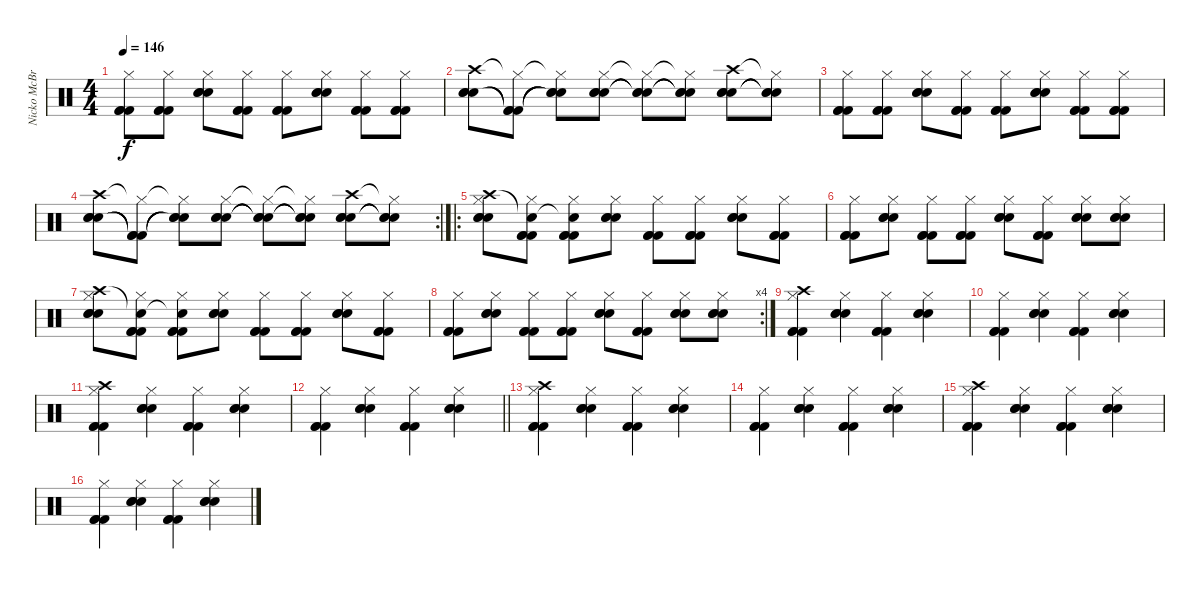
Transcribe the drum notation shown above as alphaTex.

\track ("Nicko McBrain" "Nicko McBr") {instrument percussion}
\staff {score}
\articulation defaults
\ts (4 4)
\tempo 146
\clef neutral
\ks c
("Hi-Hat (closed)" "Kick (hit) 2" "Kick (hit) 2" "Kick (hit) 2").8{dy f} ("Hi-Hat (closed)" "Kick (hit) 2" "Kick (hit) 2" "Kick (hit) 2").8 ("Hi-Hat (closed)" "Snare (hit) 2" "Snare (hit) 2" "Snare (hit) 2").8 ("Hi-Hat (closed)" "Kick (hit) 2" "Kick (hit) 2" "Kick (hit) 2").8 ("Hi-Hat (closed)" "Kick (hit) 2" "Kick (hit) 2" "Kick (hit) 2").8 ("Hi-Hat (closed)" "Snare (hit) 2" "Snare (hit) 2" "Snare (hit) 2").8 ("Hi-Hat (closed)" "Kick (hit) 2" "Kick (hit) 2" "Kick (hit) 2").8 ("Hi-Hat (closed)" "Kick (hit) 2" "Kick (hit) 2" "Kick (hit) 2").8 |
("Crash high (hit)" "Snare (hit) 2" "Snare (hit) 2" "Snare (hit) 2").8 ("Hi-Hat (closed)"{t} "Kick (hit) 2"{t} "Kick (hit) 2"{t} "Kick (hit) 2"{t}).8 ("Hi-Hat (closed)"{t} "Snare (hit) 2"{t} "Snare (hit) 2"{t} "Snare (hit) 2"{t}).8 ("Hi-Hat (closed)" "Snare (hit) 2" "Snare (hit) 2" "Snare (hit) 2").8 ("Hi-Hat (closed)"{t} "Snare (hit) 2"{t} "Snare (hit) 2"{t} "Snare (hit) 2"{t}).8 ("Hi-Hat (closed)"{t} "Snare (hit) 2"{t} "Snare (hit) 2"{t} "Snare (hit) 2"{t}).8 ("Crash high (hit)" "Snare (hit) 2" "Snare (hit) 2" "Snare (hit) 2").8 ("Hi-Hat (closed)"{t} "Snare (hit) 2"{t} "Snare (hit) 2"{t} "Snare (hit) 2"{t}).8 |
("Hi-Hat (closed)" "Kick (hit) 2" "Kick (hit) 2" "Kick (hit) 2").8 ("Hi-Hat (closed)" "Kick (hit) 2" "Kick (hit) 2" "Kick (hit) 2").8 ("Hi-Hat (closed)" "Snare (hit) 2" "Snare (hit) 2" "Snare (hit) 2").8 ("Hi-Hat (closed)" "Kick (hit) 2" "Kick (hit) 2" "Kick (hit) 2").8 ("Hi-Hat (closed)" "Kick (hit) 2" "Kick (hit) 2" "Kick (hit) 2").8 ("Hi-Hat (closed)" "Snare (hit) 2" "Snare (hit) 2" "Snare (hit) 2").8 ("Hi-Hat (closed)" "Kick (hit) 2" "Kick (hit) 2" "Kick (hit) 2").8 ("Hi-Hat (closed)" "Kick (hit) 2" "Kick (hit) 2" "Kick (hit) 2").8 |
\rc 2
("Crash high (hit)" "Snare (hit) 2" "Snare (hit) 2" "Snare (hit) 2").8 ("Hi-Hat (closed)"{t} "Kick (hit) 2"{t} "Kick (hit) 2"{t} "Kick (hit) 2"{t}).8 ("Hi-Hat (closed)"{t} "Snare (hit) 2"{t} "Snare (hit) 2"{t} "Snare (hit) 2"{t}).8 ("Hi-Hat (closed)" "Snare (hit) 2" "Snare (hit) 2" "Snare (hit) 2").8 ("Hi-Hat (closed)"{t} "Snare (hit) 2"{t} "Snare (hit) 2"{t} "Snare (hit) 2"{t}).8 ("Hi-Hat (closed)"{t} "Snare (hit) 2"{t} "Snare (hit) 2"{t} "Snare (hit) 2"{t}).8 ("Crash high (hit)" "Snare (hit) 2" "Snare (hit) 2" "Snare (hit) 2").8 ("Hi-Hat (closed)"{t} "Snare (hit) 2"{t} "Snare (hit) 2"{t} "Snare (hit) 2"{t}).8 |
\ro
("Crash high (hit)" "Hi-Hat (closed)" "Snare (hit) 2" "Snare (hit) 2" "Snare (hit) 2").8 ("Snare (hit)"{t} "Hi-Hat (closed)" "Kick (hit) 2" "Kick (hit) 2" "Kick (hit) 2").8 ("Snare (hit)"{t} "Hi-Hat (closed)" "Kick (hit) 2" "Kick (hit) 2" "Kick (hit) 2").8 ("Hi-Hat (closed)" "Snare (hit) 2" "Snare (hit) 2" "Snare (hit) 2").8 ("Hi-Hat (closed)" "Kick (hit) 2" "Kick (hit) 2" "Kick (hit) 2").8 ("Hi-Hat (closed)" "Kick (hit) 2" "Kick (hit) 2" "Kick (hit) 2").8 ("Hi-Hat (closed)" "Snare (hit) 2" "Snare (hit) 2" "Snare (hit) 2").8 ("Hi-Hat (closed)" "Kick (hit) 2" "Kick (hit) 2" "Kick (hit) 2").8 |
("Hi-Hat (closed)" "Kick (hit) 2" "Kick (hit) 2" "Kick (hit) 2").8 ("Hi-Hat (closed)" "Snare (hit) 2" "Snare (hit) 2" "Snare (hit) 2").8 ("Hi-Hat (closed)" "Kick (hit) 2" "Kick (hit) 2" "Kick (hit) 2").8 ("Hi-Hat (closed)" "Kick (hit) 2" "Kick (hit) 2" "Kick (hit) 2").8 ("Hi-Hat (closed)" "Snare (hit) 2" "Snare (hit) 2" "Snare (hit) 2").8 ("Hi-Hat (closed)" "Kick (hit) 2" "Kick (hit) 2" "Kick (hit) 2").8 ("Hi-Hat (closed)" "Snare (hit) 2" "Snare (hit) 2" "Snare (hit) 2").8 ("Hi-Hat (closed)" "Snare (hit) 2" "Snare (hit) 2" "Snare (hit) 2").8 |
("Crash high (hit)" "Hi-Hat (closed)" "Snare (hit) 2" "Snare (hit) 2" "Snare (hit) 2").8 ("Snare (hit)"{t} "Hi-Hat (closed)" "Kick (hit) 2" "Kick (hit) 2" "Kick (hit) 2").8 ("Snare (hit)"{t} "Hi-Hat (closed)" "Kick (hit) 2" "Kick (hit) 2" "Kick (hit) 2").8 ("Hi-Hat (closed)" "Snare (hit) 2" "Snare (hit) 2" "Snare (hit) 2").8 ("Hi-Hat (closed)" "Kick (hit) 2" "Kick (hit) 2" "Kick (hit) 2").8 ("Hi-Hat (closed)" "Kick (hit) 2" "Kick (hit) 2" "Kick (hit) 2").8 ("Hi-Hat (closed)" "Snare (hit) 2" "Snare (hit) 2" "Snare (hit) 2").8 ("Hi-Hat (closed)" "Kick (hit) 2" "Kick (hit) 2" "Kick (hit) 2").8 |
\rc 4
("Hi-Hat (closed)" "Kick (hit) 2" "Kick (hit) 2" "Kick (hit) 2").8 ("Hi-Hat (closed)" "Snare (hit) 2" "Snare (hit) 2" "Snare (hit) 2").8 ("Hi-Hat (closed)" "Kick (hit) 2" "Kick (hit) 2" "Kick (hit) 2").8 ("Hi-Hat (closed)" "Kick (hit) 2" "Kick (hit) 2" "Kick (hit) 2").8 ("Hi-Hat (closed)" "Snare (hit) 2" "Snare (hit) 2" "Snare (hit) 2").8 ("Hi-Hat (closed)" "Kick (hit) 2" "Kick (hit) 2" "Kick (hit) 2").8 ("Hi-Hat (closed)" "Snare (hit) 2" "Snare (hit) 2" "Snare (hit) 2").8 ("Hi-Hat (closed)" "Snare (hit) 2" "Snare (hit) 2" "Snare (hit) 2").8 |
("Crash high (hit)" "Hi-Hat (closed)" "Kick (hit) 2" "Kick (hit) 2" "Kick (hit) 2").4 ("Hi-Hat (closed)" "Snare (hit) 2" "Snare (hit) 2" "Snare (hit) 2").4 ("Hi-Hat (closed)" "Kick (hit) 2" "Kick (hit) 2" "Kick (hit) 2").4 ("Hi-Hat (closed)" "Snare (hit) 2" "Snare (hit) 2" "Snare (hit) 2").4 |
("Hi-Hat (closed)" "Kick (hit) 2" "Kick (hit) 2" "Kick (hit) 2").4 ("Hi-Hat (closed)" "Snare (hit) 2" "Snare (hit) 2" "Snare (hit) 2").4 ("Hi-Hat (closed)" "Kick (hit) 2" "Kick (hit) 2" "Kick (hit) 2").4 ("Hi-Hat (closed)" "Snare (hit) 2" "Snare (hit) 2" "Snare (hit) 2").4 |
("Crash high (hit)" "Hi-Hat (closed)" "Kick (hit) 2" "Kick (hit) 2" "Kick (hit) 2").4 ("Hi-Hat (closed)" "Snare (hit) 2" "Snare (hit) 2" "Snare (hit) 2").4 ("Hi-Hat (closed)" "Kick (hit) 2" "Kick (hit) 2" "Kick (hit) 2").4 ("Hi-Hat (closed)" "Snare (hit) 2" "Snare (hit) 2" "Snare (hit) 2").4 |
\barLineRight lightlight
("Hi-Hat (closed)" "Kick (hit) 2" "Kick (hit) 2" "Kick (hit) 2").4 ("Hi-Hat (closed)" "Snare (hit) 2" "Snare (hit) 2" "Snare (hit) 2").4 ("Hi-Hat (closed)" "Kick (hit) 2" "Kick (hit) 2" "Kick (hit) 2").4 ("Hi-Hat (closed)" "Snare (hit) 2" "Snare (hit) 2" "Snare (hit) 2").4 |
("Crash high (hit)" "Hi-Hat (closed)" "Kick (hit) 2" "Kick (hit) 2" "Kick (hit) 2").4 ("Hi-Hat (closed)" "Snare (hit) 2" "Snare (hit) 2" "Snare (hit) 2").4 ("Hi-Hat (closed)" "Kick (hit) 2" "Kick (hit) 2" "Kick (hit) 2").4 ("Hi-Hat (closed)" "Snare (hit) 2" "Snare (hit) 2" "Snare (hit) 2").4 |
("Hi-Hat (closed)" "Kick (hit) 2" "Kick (hit) 2" "Kick (hit) 2").4 ("Hi-Hat (closed)" "Snare (hit) 2" "Snare (hit) 2" "Snare (hit) 2").4 ("Hi-Hat (closed)" "Kick (hit) 2" "Kick (hit) 2" "Kick (hit) 2").4 ("Hi-Hat (closed)" "Snare (hit) 2" "Snare (hit) 2" "Snare (hit) 2").4 |
("Crash high (hit)" "Hi-Hat (closed)" "Kick (hit) 2" "Kick (hit) 2" "Kick (hit) 2").4 ("Hi-Hat (closed)" "Snare (hit) 2" "Snare (hit) 2" "Snare (hit) 2").4 ("Hi-Hat (closed)" "Kick (hit) 2" "Kick (hit) 2" "Kick (hit) 2").4 ("Hi-Hat (closed)" "Snare (hit) 2" "Snare (hit) 2" "Snare (hit) 2").4 |
("Hi-Hat (closed)" "Kick (hit) 2" "Kick (hit) 2" "Kick (hit) 2").4 ("Hi-Hat (closed)" "Snare (hit) 2" "Snare (hit) 2" "Snare (hit) 2").4 ("Hi-Hat (closed)" "Kick (hit) 2" "Kick (hit) 2" "Kick (hit) 2").4 ("Hi-Hat (closed)" "Snare (hit) 2" "Snare (hit) 2" "Snare (hit) 2").4
